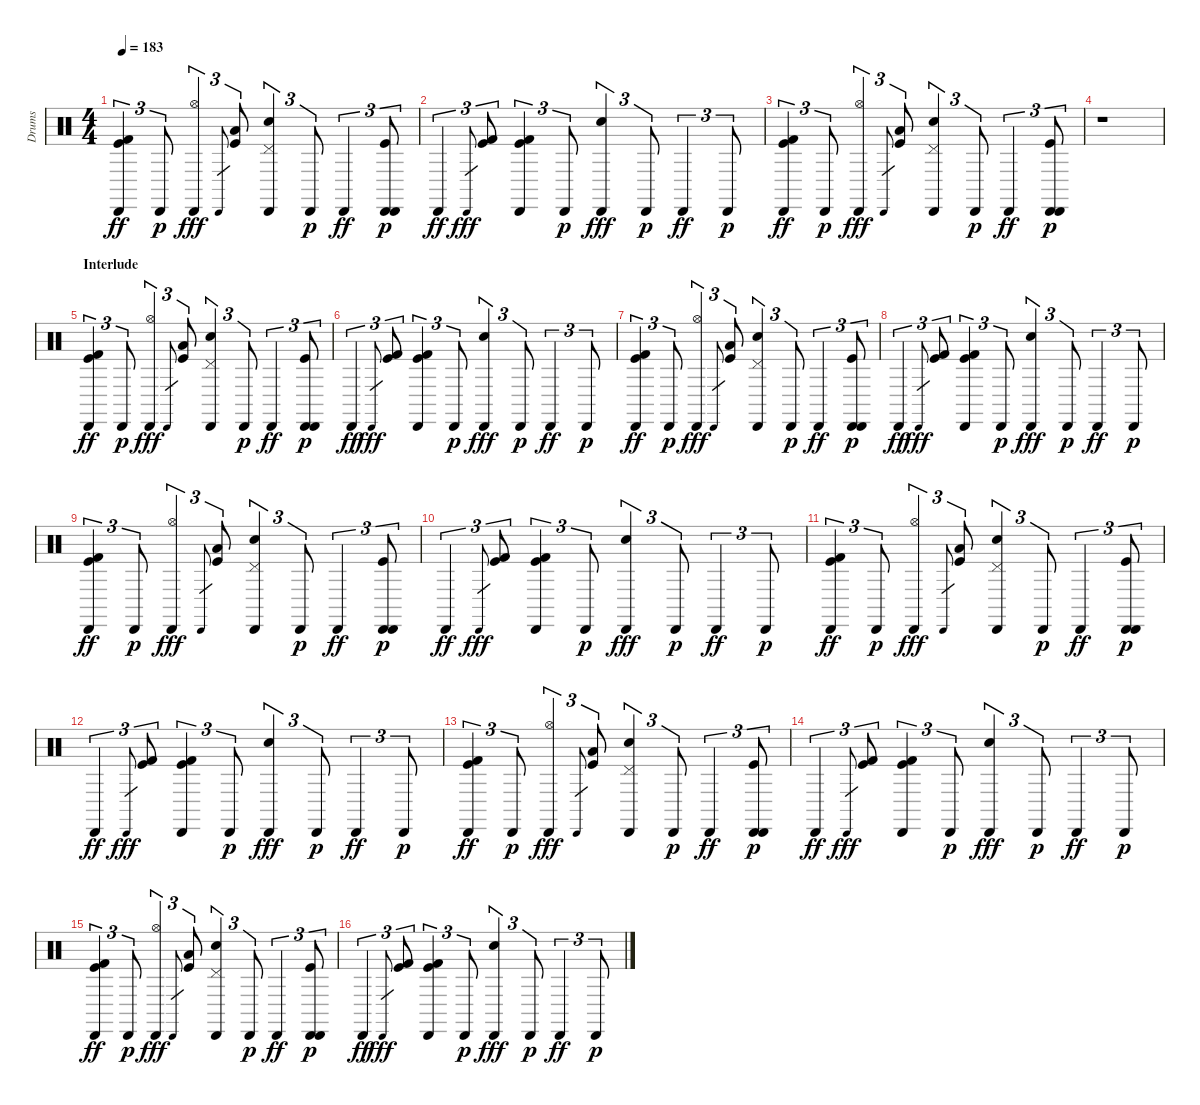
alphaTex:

\track ("Drums" "Drums") {instrument percussion}
\staff {score}
\articulation defaults
\ts (4 4)
\tempo 183
\clef neutral
\ks c
("Kick (hit) 2" "Kick (hit)" "Cabasa (hit)").4{tu (3 2) dy ff} "Cabasa (hit)".8{tu (3 2) dy p} ("Cabasa (hit)" "Hi-Hat (open)").4{tu (3 2) dy fff} "Cabasa (hit)".8{gr} ("Kick (hit)" "Low Floor Tom (hit)").8{tu (3 2)} ("Cabasa (hit)" "Electric Snare (hit)" "Pedal Hi-Hat (hit)").4{tu (3 2)} "Cabasa (hit)".8{tu (3 2) dy p} "Cabasa (hit)".4{tu (3 2) dy ff} ("Cabasa (hit)" "Kick (hit)" "Cabasa (hit)").8{tu (3 2) dy p} |
"Cabasa (hit)".4{tu (3 2) dy ff} "Cabasa (hit)".8{gr dy fff} ("Kick (hit)" "Kick (hit) 2").8{tu (3 2)} ("Cabasa (hit)" "Kick (hit)" "Kick (hit) 2").4{tu (3 2)} "Cabasa (hit)".8{tu (3 2) dy p} ("Cabasa (hit)" "Electric Snare (hit)").4{tu (3 2) dy fff} "Cabasa (hit)".8{tu (3 2) dy p} "Cabasa (hit)".4{tu (3 2) dy ff} "Cabasa (hit)".8{tu (3 2) dy p} |
("Kick (hit) 2" "Kick (hit)" "Cabasa (hit)").4{tu (3 2) dy ff} "Cabasa (hit)".8{tu (3 2) dy p} ("Cabasa (hit)" "Hi-Hat (open)").4{tu (3 2) dy fff} "Cabasa (hit)".8{gr} ("Kick (hit)" "Low Floor Tom (hit)").8{tu (3 2)} ("Cabasa (hit)" "Electric Snare (hit)" "Pedal Hi-Hat (hit)").4{tu (3 2)} "Cabasa (hit)".8{tu (3 2) dy p} "Cabasa (hit)".4{tu (3 2) dy ff} ("Cabasa (hit)" "Kick (hit)" "Cabasa (hit)").8{tu (3 2) dy p} |
r.1 |
\section ("" "Interlude")
("Kick (hit) 2" "Kick (hit)" "Cabasa (hit)").4{tu (3 2) dy ff} "Cabasa (hit)".8{tu (3 2) dy p} ("Cabasa (hit)" "Hi-Hat (open)").4{tu (3 2) dy fff} "Cabasa (hit)".8{gr} ("Kick (hit)" "Low Floor Tom (hit)").8{tu (3 2)} ("Cabasa (hit)" "Electric Snare (hit)" "Pedal Hi-Hat (hit)").4{tu (3 2)} "Cabasa (hit)".8{tu (3 2) dy p} "Cabasa (hit)".4{tu (3 2) dy ff} ("Cabasa (hit)" "Kick (hit)" "Cabasa (hit)").8{tu (3 2) dy p} |
"Cabasa (hit)".4{tu (3 2) dy ff} "Cabasa (hit)".8{gr dy fff} ("Kick (hit)" "Kick (hit) 2").8{tu (3 2)} ("Cabasa (hit)" "Kick (hit)" "Kick (hit) 2").4{tu (3 2)} "Cabasa (hit)".8{tu (3 2) dy p} ("Cabasa (hit)" "Electric Snare (hit)").4{tu (3 2) dy fff} "Cabasa (hit)".8{tu (3 2) dy p} "Cabasa (hit)".4{tu (3 2) dy ff} "Cabasa (hit)".8{tu (3 2) dy p} |
("Kick (hit) 2" "Kick (hit)" "Cabasa (hit)").4{tu (3 2) dy ff} "Cabasa (hit)".8{tu (3 2) dy p} ("Cabasa (hit)" "Hi-Hat (open)").4{tu (3 2) dy fff} "Cabasa (hit)".8{gr} ("Kick (hit)" "Low Floor Tom (hit)").8{tu (3 2)} ("Cabasa (hit)" "Electric Snare (hit)" "Pedal Hi-Hat (hit)").4{tu (3 2)} "Cabasa (hit)".8{tu (3 2) dy p} "Cabasa (hit)".4{tu (3 2) dy ff} ("Cabasa (hit)" "Kick (hit)" "Cabasa (hit)").8{tu (3 2) dy p} |
"Cabasa (hit)".4{tu (3 2) dy ff} "Cabasa (hit)".8{gr dy fff} ("Kick (hit)" "Kick (hit) 2").8{tu (3 2)} ("Cabasa (hit)" "Kick (hit)" "Kick (hit) 2").4{tu (3 2)} "Cabasa (hit)".8{tu (3 2) dy p} ("Cabasa (hit)" "Electric Snare (hit)").4{tu (3 2) dy fff} "Cabasa (hit)".8{tu (3 2) dy p} "Cabasa (hit)".4{tu (3 2) dy ff} "Cabasa (hit)".8{tu (3 2) dy p} |
("Kick (hit) 2" "Kick (hit)" "Cabasa (hit)").4{tu (3 2) dy ff} "Cabasa (hit)".8{tu (3 2) dy p} ("Cabasa (hit)" "Hi-Hat (open)").4{tu (3 2) dy fff} "Cabasa (hit)".8{gr} ("Kick (hit)" "Low Floor Tom (hit)").8{tu (3 2)} ("Cabasa (hit)" "Electric Snare (hit)" "Pedal Hi-Hat (hit)").4{tu (3 2)} "Cabasa (hit)".8{tu (3 2) dy p} "Cabasa (hit)".4{tu (3 2) dy ff} ("Cabasa (hit)" "Kick (hit)" "Cabasa (hit)").8{tu (3 2) dy p} |
"Cabasa (hit)".4{tu (3 2) dy ff} "Cabasa (hit)".8{gr dy fff} ("Kick (hit)" "Kick (hit) 2").8{tu (3 2)} ("Cabasa (hit)" "Kick (hit)" "Kick (hit) 2").4{tu (3 2)} "Cabasa (hit)".8{tu (3 2) dy p} ("Cabasa (hit)" "Electric Snare (hit)").4{tu (3 2) dy fff} "Cabasa (hit)".8{tu (3 2) dy p} "Cabasa (hit)".4{tu (3 2) dy ff} "Cabasa (hit)".8{tu (3 2) dy p} |
("Kick (hit) 2" "Kick (hit)" "Cabasa (hit)").4{tu (3 2) dy ff} "Cabasa (hit)".8{tu (3 2) dy p} ("Cabasa (hit)" "Hi-Hat (open)").4{tu (3 2) dy fff} "Cabasa (hit)".8{gr} ("Kick (hit)" "Low Floor Tom (hit)").8{tu (3 2)} ("Cabasa (hit)" "Electric Snare (hit)" "Pedal Hi-Hat (hit)").4{tu (3 2)} "Cabasa (hit)".8{tu (3 2) dy p} "Cabasa (hit)".4{tu (3 2) dy ff} ("Cabasa (hit)" "Kick (hit)" "Cabasa (hit)").8{tu (3 2) dy p} |
"Cabasa (hit)".4{tu (3 2) dy ff} "Cabasa (hit)".8{gr dy fff} ("Kick (hit)" "Kick (hit) 2").8{tu (3 2)} ("Cabasa (hit)" "Kick (hit)" "Kick (hit) 2").4{tu (3 2)} "Cabasa (hit)".8{tu (3 2) dy p} ("Cabasa (hit)" "Electric Snare (hit)").4{tu (3 2) dy fff} "Cabasa (hit)".8{tu (3 2) dy p} "Cabasa (hit)".4{tu (3 2) dy ff} "Cabasa (hit)".8{tu (3 2) dy p} |
("Kick (hit) 2" "Kick (hit)" "Cabasa (hit)").4{tu (3 2) dy ff} "Cabasa (hit)".8{tu (3 2) dy p} ("Cabasa (hit)" "Hi-Hat (open)").4{tu (3 2) dy fff} "Cabasa (hit)".8{gr} ("Kick (hit)" "Low Floor Tom (hit)").8{tu (3 2)} ("Cabasa (hit)" "Electric Snare (hit)" "Pedal Hi-Hat (hit)").4{tu (3 2)} "Cabasa (hit)".8{tu (3 2) dy p} "Cabasa (hit)".4{tu (3 2) dy ff} ("Cabasa (hit)" "Kick (hit)" "Cabasa (hit)").8{tu (3 2) dy p} |
"Cabasa (hit)".4{tu (3 2) dy ff} "Cabasa (hit)".8{gr dy fff} ("Kick (hit)" "Kick (hit) 2").8{tu (3 2)} ("Cabasa (hit)" "Kick (hit)" "Kick (hit) 2").4{tu (3 2)} "Cabasa (hit)".8{tu (3 2) dy p} ("Cabasa (hit)" "Electric Snare (hit)").4{tu (3 2) dy fff} "Cabasa (hit)".8{tu (3 2) dy p} "Cabasa (hit)".4{tu (3 2) dy ff} "Cabasa (hit)".8{tu (3 2) dy p} |
("Kick (hit) 2" "Kick (hit)" "Cabasa (hit)").4{tu (3 2) dy ff} "Cabasa (hit)".8{tu (3 2) dy p} ("Cabasa (hit)" "Hi-Hat (open)").4{tu (3 2) dy fff} "Cabasa (hit)".8{gr} ("Kick (hit)" "Low Floor Tom (hit)").8{tu (3 2)} ("Cabasa (hit)" "Electric Snare (hit)" "Pedal Hi-Hat (hit)").4{tu (3 2)} "Cabasa (hit)".8{tu (3 2) dy p} "Cabasa (hit)".4{tu (3 2) dy ff} ("Cabasa (hit)" "Kick (hit)" "Cabasa (hit)").8{tu (3 2) dy p} |
"Cabasa (hit)".4{tu (3 2) dy ff} "Cabasa (hit)".8{gr dy fff} ("Kick (hit)" "Kick (hit) 2").8{tu (3 2)} ("Cabasa (hit)" "Kick (hit)" "Kick (hit) 2").4{tu (3 2)} "Cabasa (hit)".8{tu (3 2) dy p} ("Cabasa (hit)" "Electric Snare (hit)").4{tu (3 2) dy fff} "Cabasa (hit)".8{tu (3 2) dy p} "Cabasa (hit)".4{tu (3 2) dy ff} "Cabasa (hit)".8{tu (3 2) dy p}
